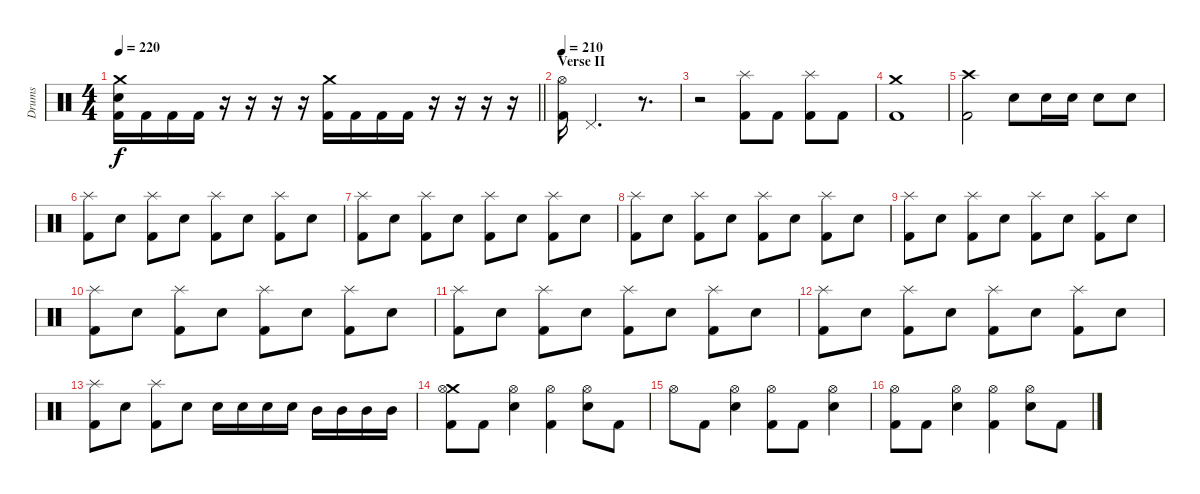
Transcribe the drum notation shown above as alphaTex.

\track ("Drums" "Drums") {instrument percussion}
\staff {score}
\articulation defaults
\ts (4 4)
\tempo 220
\clef neutral
\barLineRight lightlight
\ks c
("Crash medium (hit)" "Electric Snare (hit)" "Kick (hit) 2").16{dy f} "Kick (hit) 2".16 "Kick (hit) 2".16 "Kick (hit) 2".16 r.16 r.16 r.16 r.16 ("Crash medium (hit)" "Kick (hit) 2").16 "Kick (hit) 2".16 "Kick (hit) 2".16 "Kick (hit) 2".16 r.16 r.16 r.16 r.16 |
\section ("" "Verse II")
\tempo 210
("Hi-Hat (open)" "Kick (hit) 2").16 "Pedal Hi-Hat (hit)".2{d} r.8{d} |
r.2 ("Splash (hit)" "Kick (hit) 2").8 "Kick (hit) 2".8 ("Splash (hit)" "Kick (hit) 2").8 "Kick (hit) 2".8 |
("Crash medium (hit)" "Kick (hit) 2").1 |
("Crash high (hit)" "Kick (hit) 2").2 "Electric Snare (hit)".8 "Electric Snare (hit)".16 "Electric Snare (hit)".16 "Electric Snare (hit)".8 "Electric Snare (hit)".8 |
("Splash (hit)" "Kick (hit) 2").8 "Electric Snare (hit)".8 ("Splash (hit)" "Kick (hit) 2").8 "Electric Snare (hit)".8 ("Splash (hit)" "Kick (hit) 2").8 "Electric Snare (hit)".8 ("Splash (hit)" "Kick (hit) 2").8 "Electric Snare (hit)".8 |
("Splash (hit)" "Kick (hit) 2").8 "Electric Snare (hit)".8 ("Splash (hit)" "Kick (hit) 2").8 "Electric Snare (hit)".8 ("Splash (hit)" "Kick (hit) 2").8 "Electric Snare (hit)".8 ("Splash (hit)" "Kick (hit) 2").8 "Electric Snare (hit)".8 |
("Splash (hit)" "Kick (hit) 2").8 "Electric Snare (hit)".8 ("Splash (hit)" "Kick (hit) 2").8 "Electric Snare (hit)".8 ("Splash (hit)" "Kick (hit) 2").8 "Electric Snare (hit)".8 ("Splash (hit)" "Kick (hit) 2").8 "Electric Snare (hit)".8 |
("Splash (hit)" "Kick (hit) 2").8 "Electric Snare (hit)".8 ("Splash (hit)" "Kick (hit) 2").8 "Electric Snare (hit)".8 ("Splash (hit)" "Kick (hit) 2").8 "Electric Snare (hit)".8 ("Splash (hit)" "Kick (hit) 2").8 "Electric Snare (hit)".8 |
("Splash (hit)" "Kick (hit) 2").8 "Electric Snare (hit)".8 ("Splash (hit)" "Kick (hit) 2").8 "Electric Snare (hit)".8 ("Splash (hit)" "Kick (hit) 2").8 "Electric Snare (hit)".8 ("Splash (hit)" "Kick (hit) 2").8 "Electric Snare (hit)".8 |
("Splash (hit)" "Kick (hit) 2").8 "Electric Snare (hit)".8 ("Splash (hit)" "Kick (hit) 2").8 "Electric Snare (hit)".8 ("Splash (hit)" "Kick (hit) 2").8 "Electric Snare (hit)".8 ("Splash (hit)" "Kick (hit) 2").8 "Electric Snare (hit)".8 |
("Splash (hit)" "Kick (hit) 2").8 "Electric Snare (hit)".8 ("Splash (hit)" "Kick (hit) 2").8 "Electric Snare (hit)".8 ("Splash (hit)" "Kick (hit) 2").8 "Electric Snare (hit)".8 ("Splash (hit)" "Kick (hit) 2").8 "Electric Snare (hit)".8 |
("Splash (hit)" "Kick (hit) 2").8 "Electric Snare (hit)".8 ("Splash (hit)" "Kick (hit) 2").8 "Electric Snare (hit)".8 "Electric Snare (hit)".16 "Electric Snare (hit)".16 "Electric Snare (hit)".16 "Electric Snare (hit)".16 "Mid Tom (hit)".16 "Mid Tom (hit)".16 "Mid Tom (hit)".16 "Mid Tom (hit)".16 |
("Crash medium (hit)" "Hi-Hat (open)" "Kick (hit) 2").8 "Kick (hit) 2".8 ("Hi-Hat (open)" "Electric Snare (hit)").4 ("Hi-Hat (open)" "Kick (hit) 2").4 ("Hi-Hat (open)" "Electric Snare (hit)").8 "Kick (hit) 2".8 |
"Hi-Hat (open)".8 "Kick (hit) 2".8 ("Hi-Hat (open)" "Electric Snare (hit)").4 ("Hi-Hat (open)" "Kick (hit) 2").8 "Kick (hit) 2".8 ("Hi-Hat (open)" "Electric Snare (hit)").4 |
("Hi-Hat (open)" "Kick (hit) 2").8 "Kick (hit) 2".8 ("Hi-Hat (open)" "Electric Snare (hit)").4 ("Hi-Hat (open)" "Kick (hit) 2").4 ("Hi-Hat (open)" "Electric Snare (hit)").8 "Kick (hit) 2".8
